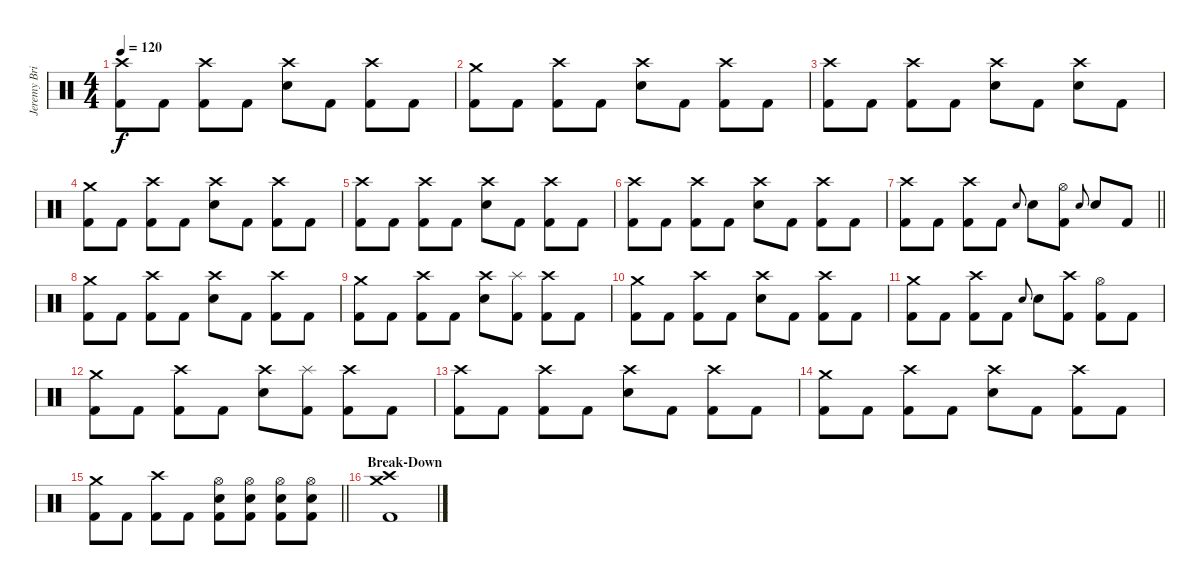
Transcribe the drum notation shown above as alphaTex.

\track ("Jeremy Brian [Drums]" "Jeremy Bri") {instrument percussion}
\staff {score}
\articulation defaults
\ts (4 4)
\tempo 120
\clef neutral
\ks c
("Crash high (hit)" "Kick (hit) 2").8{dy f} "Kick (hit) 2".8 ("Crash high (hit)" "Kick (hit) 2").8 "Kick (hit) 2".8 ("Crash high (hit)" "Electric Snare (hit)").8 "Kick (hit) 2".8 ("Crash high (hit)" "Kick (hit) 2").8 "Kick (hit) 2".8 |
("Crash medium (hit)" "Kick (hit) 2").8 "Kick (hit) 2".8 ("Crash high (hit)" "Kick (hit) 2").8 "Kick (hit) 2".8 ("Crash high (hit)" "Electric Snare (hit)").8 "Kick (hit) 2".8 ("Crash high (hit)" "Kick (hit) 2").8 "Kick (hit) 2".8 |
("Crash high (hit)" "Kick (hit) 2").8 "Kick (hit) 2".8 ("Crash high (hit)" "Kick (hit) 2").8 "Kick (hit) 2".8 ("Crash high (hit)" "Electric Snare (hit)").8 "Kick (hit) 2".8 ("Crash high (hit)" "Electric Snare (hit)").8 "Kick (hit) 2".8 |
("Crash medium (hit)" "Kick (hit) 2").8 "Kick (hit) 2".8 ("Crash high (hit)" "Kick (hit) 2").8 "Kick (hit) 2".8 ("Crash high (hit)" "Electric Snare (hit)").8 "Kick (hit) 2".8 ("Crash high (hit)" "Kick (hit) 2").8 "Kick (hit) 2".8 |
("Crash high (hit)" "Kick (hit) 2").8 "Kick (hit) 2".8 ("Crash high (hit)" "Kick (hit) 2").8 "Kick (hit) 2".8 ("Crash high (hit)" "Electric Snare (hit)").8 "Kick (hit) 2".8 ("Crash high (hit)" "Kick (hit) 2").8 "Kick (hit) 2".8 |
("Crash high (hit)" "Kick (hit) 2").8 "Kick (hit) 2".8 ("Crash high (hit)" "Kick (hit) 2").8 "Kick (hit) 2".8 ("Crash high (hit)" "Electric Snare (hit)").8 "Kick (hit) 2".8 ("Crash high (hit)" "Kick (hit) 2").8 "Kick (hit) 2".8 |
\barLineRight lightlight
("Crash high (hit)" "Kick (hit) 2").8 "Kick (hit) 2".8 ("Crash high (hit)" "Kick (hit) 2").8 "Kick (hit) 2".8 "Electric Snare (hit)".8{gr onbeat} "Electric Snare (hit)".8 ("Hi-Hat (open)" "Kick (hit) 2").8 "Electric Snare (hit)".8{gr onbeat} "Electric Snare (hit)".8 "Kick (hit) 2".8 |
("Crash medium (hit)" "Kick (hit) 2").8 "Kick (hit) 2".8 ("Crash high (hit)" "Kick (hit) 2").8 "Kick (hit) 2".8 ("Crash high (hit)" "Electric Snare (hit)").8 "Kick (hit) 2".8 ("Crash high (hit)" "Kick (hit) 2").8 "Kick (hit) 2".8 |
("Crash medium (hit)" "Kick (hit) 2").8 "Kick (hit) 2".8 ("Crash high (hit)" "Kick (hit) 2").8 "Kick (hit) 2".8 ("Crash high (hit)" "Electric Snare (hit)").8 ("Splash (hit)" "Kick (hit) 2").8 ("Crash high (hit)" "Kick (hit) 2").8 "Kick (hit) 2".8 |
("Crash medium (hit)" "Kick (hit) 2").8 "Kick (hit) 2".8 ("Crash high (hit)" "Kick (hit) 2").8 "Kick (hit) 2".8 ("Crash high (hit)" "Electric Snare (hit)").8 "Kick (hit) 2".8 ("Crash high (hit)" "Kick (hit) 2").8 "Kick (hit) 2".8 |
("Crash medium (hit)" "Kick (hit) 2").8 "Kick (hit) 2".8 ("Crash high (hit)" "Kick (hit) 2").8 "Kick (hit) 2".8 "Electric Snare (hit)".8{gr onbeat} "Electric Snare (hit)".8 ("Crash high (hit)" "Kick (hit) 2").8 ("Hi-Hat (open)" "Kick (hit) 2").8 "Kick (hit) 2".8 |
("Crash medium (hit)" "Kick (hit) 2").8 "Kick (hit) 2".8 ("Crash high (hit)" "Kick (hit) 2").8 "Kick (hit) 2".8 ("Crash high (hit)" "Electric Snare (hit)").8 ("Splash (hit)" "Kick (hit) 2").8 ("Crash high (hit)" "Kick (hit) 2").8 "Kick (hit) 2".8 |
("Crash high (hit)" "Kick (hit) 2").8 "Kick (hit) 2".8 ("Crash high (hit)" "Kick (hit) 2").8 "Kick (hit) 2".8 ("Crash high (hit)" "Electric Snare (hit)").8 "Kick (hit) 2".8 ("Crash high (hit)" "Kick (hit) 2").8 "Kick (hit) 2".8 |
("Crash medium (hit)" "Kick (hit) 2").8 "Kick (hit) 2".8 ("Crash high (hit)" "Kick (hit) 2").8 "Kick (hit) 2".8 ("Crash high (hit)" "Electric Snare (hit)").8 "Kick (hit) 2".8 ("Crash high (hit)" "Kick (hit) 2").8 "Kick (hit) 2".8 |
\barLineRight lightlight
("Crash medium (hit)" "Kick (hit) 2").8 "Kick (hit) 2".8 ("Crash high (hit)" "Kick (hit) 2").8 "Kick (hit) 2".8 ("Hi-Hat (open)" "Electric Snare (hit)" "Kick (hit) 2").8 ("Hi-Hat (open)" "Electric Snare (hit)" "Kick (hit) 2").8 ("Hi-Hat (open)" "Electric Snare (hit)" "Kick (hit) 2").8 ("Hi-Hat (open)" "Electric Snare (hit)" "Kick (hit) 2").8 |
\section ("" "Break-Down")
("Crash high (hit)" "Crash medium (hit)" "Kick (hit) 2").1
